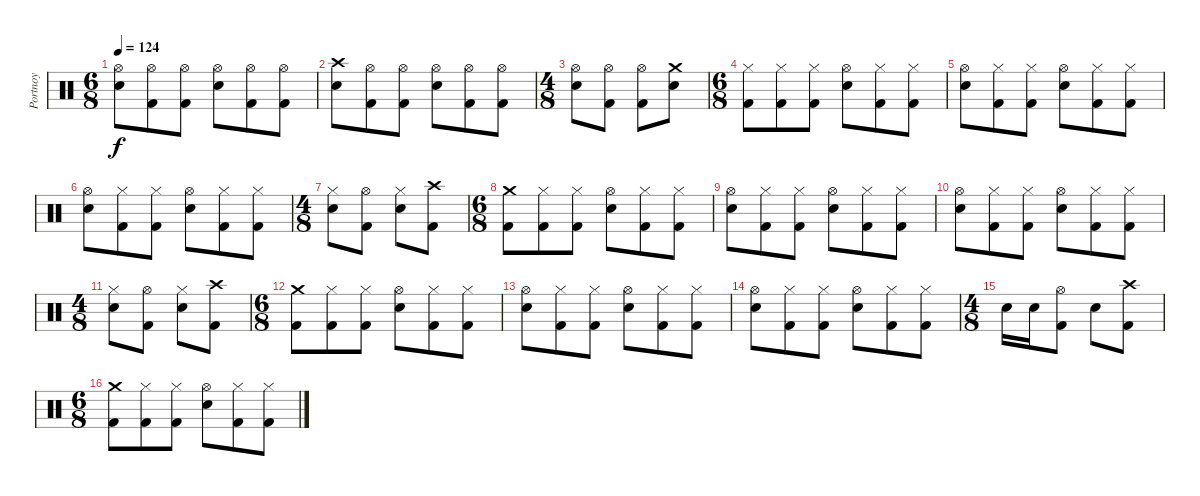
\track ("Portnoy" "Portnoy") {instrument percussion}
\staff {score}
\articulation defaults
\ts (6 8)
\tempo 124
\clef neutral
\ks c
("Hi-Hat (open)" "Electric Snare (hit)").8{dy f} ("Hi-Hat (open)" "Kick (hit) 2").8 ("Hi-Hat (open)" "Kick (hit) 2").8 ("Hi-Hat (open)" "Electric Snare (hit)").8 ("Hi-Hat (open)" "Kick (hit) 2").8 ("Hi-Hat (open)" "Kick (hit) 2").8 |
("Crash high (hit)" "Electric Snare (hit)").8 ("Hi-Hat (open)" "Kick (hit) 2").8 ("Hi-Hat (open)" "Kick (hit) 2").8 ("Hi-Hat (open)" "Electric Snare (hit)").8 ("Hi-Hat (open)" "Kick (hit) 2").8 ("Hi-Hat (open)" "Kick (hit) 2").8 |
\ts (4 8)
("Hi-Hat (open)" "Electric Snare (hit)").8 ("Hi-Hat (open)" "Kick (hit) 2").8 ("Hi-Hat (open)" "Kick (hit) 2").8 ("Crash medium (hit)" "Electric Snare (hit)").8 |
\ts (6 8)
("Hi-Hat (closed)" "Kick (hit) 2").8 ("Hi-Hat (closed)" "Kick (hit) 2").8 ("Hi-Hat (closed)" "Kick (hit) 2").8 ("Hi-Hat (open)" "Electric Snare (hit)").8 ("Hi-Hat (closed)" "Kick (hit) 2").8 ("Hi-Hat (closed)" "Kick (hit) 2").8 |
("Hi-Hat (open)" "Electric Snare (hit)").8 ("Hi-Hat (closed)" "Kick (hit) 2").8 ("Hi-Hat (closed)" "Kick (hit) 2").8 ("Hi-Hat (open)" "Electric Snare (hit)").8 ("Hi-Hat (closed)" "Kick (hit) 2").8 ("Hi-Hat (closed)" "Kick (hit) 2").8 |
("Hi-Hat (open)" "Electric Snare (hit)").8 ("Hi-Hat (closed)" "Kick (hit) 2").8 ("Hi-Hat (closed)" "Kick (hit) 2").8 ("Hi-Hat (open)" "Electric Snare (hit)").8 ("Hi-Hat (closed)" "Kick (hit) 2").8 ("Hi-Hat (closed)" "Kick (hit) 2").8 |
\ts (4 8)
("Hi-Hat (closed)" "Electric Snare (hit)").8 ("Hi-Hat (open)" "Kick (hit) 2").8 ("Hi-Hat (closed)" "Electric Snare (hit)").8 ("Crash high (hit)" "Kick (hit) 2").8 |
\ts (6 8)
("Crash medium (hit)" "Kick (hit) 2").8 ("Hi-Hat (closed)" "Kick (hit) 2").8 ("Hi-Hat (closed)" "Kick (hit) 2").8 ("Hi-Hat (open)" "Electric Snare (hit)").8 ("Hi-Hat (closed)" "Kick (hit) 2").8 ("Hi-Hat (closed)" "Kick (hit) 2").8 |
("Hi-Hat (open)" "Electric Snare (hit)").8 ("Hi-Hat (closed)" "Kick (hit) 2").8 ("Hi-Hat (closed)" "Kick (hit) 2").8 ("Hi-Hat (open)" "Electric Snare (hit)").8 ("Hi-Hat (closed)" "Kick (hit) 2").8 ("Hi-Hat (closed)" "Kick (hit) 2").8 |
("Hi-Hat (open)" "Electric Snare (hit)").8 ("Hi-Hat (closed)" "Kick (hit) 2").8 ("Hi-Hat (closed)" "Kick (hit) 2").8 ("Hi-Hat (open)" "Electric Snare (hit)").8 ("Hi-Hat (closed)" "Kick (hit) 2").8 ("Hi-Hat (closed)" "Kick (hit) 2").8 |
\ts (4 8)
("Hi-Hat (closed)" "Electric Snare (hit)").8 ("Hi-Hat (open)" "Kick (hit) 2").8 ("Hi-Hat (closed)" "Electric Snare (hit)").8 ("Crash high (hit)" "Kick (hit) 2").8 |
\ts (6 8)
("Crash medium (hit)" "Kick (hit) 2").8 ("Hi-Hat (closed)" "Kick (hit) 2").8 ("Hi-Hat (closed)" "Kick (hit) 2").8 ("Hi-Hat (open)" "Electric Snare (hit)").8 ("Hi-Hat (closed)" "Kick (hit) 2").8 ("Hi-Hat (closed)" "Kick (hit) 2").8 |
("Hi-Hat (open)" "Electric Snare (hit)").8 ("Hi-Hat (closed)" "Kick (hit) 2").8 ("Hi-Hat (closed)" "Kick (hit) 2").8 ("Hi-Hat (open)" "Electric Snare (hit)").8 ("Hi-Hat (closed)" "Kick (hit) 2").8 ("Hi-Hat (closed)" "Kick (hit) 2").8 |
("Hi-Hat (open)" "Electric Snare (hit)").8 ("Hi-Hat (closed)" "Kick (hit) 2").8 ("Hi-Hat (closed)" "Kick (hit) 2").8 ("Hi-Hat (open)" "Electric Snare (hit)").8 ("Hi-Hat (closed)" "Kick (hit) 2").8 ("Hi-Hat (closed)" "Kick (hit) 2").8 |
\ts (4 8)
"Electric Snare (hit)".16 "Electric Snare (hit)".16{beam merge} ("Hi-Hat (open)" "Kick (hit) 2").8 "Electric Snare (hit)".8 ("Crash high (hit)" "Kick (hit) 2").8 |
\ts (6 8)
("Crash medium (hit)" "Kick (hit) 2").8 ("Hi-Hat (closed)" "Kick (hit) 2").8 ("Hi-Hat (closed)" "Kick (hit) 2").8 ("Hi-Hat (open)" "Electric Snare (hit)").8 ("Hi-Hat (closed)" "Kick (hit) 2").8 ("Hi-Hat (closed)" "Kick (hit) 2").8
